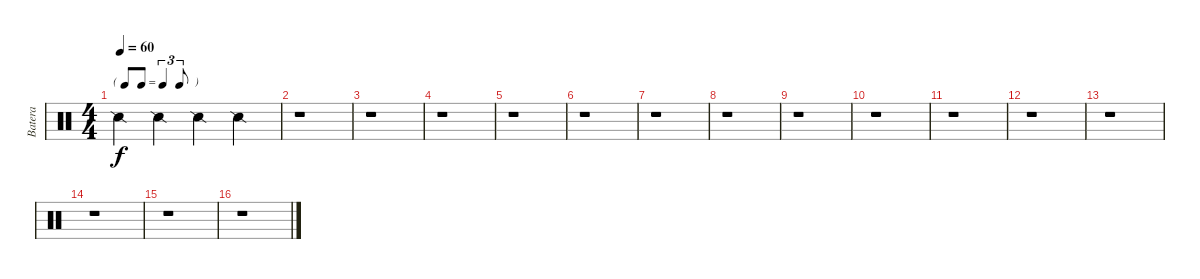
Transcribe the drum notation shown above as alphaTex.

\track ("Batera" "Batera") {instrument percussion}
\staff {score}
\articulation defaults
\ts (4 4)
\tf triplet8th
\tempo 60
\clef neutral
\ks c "Snare (side stick) 2".4{dy f} "Snare (side stick) 2".4 "Snare (side stick) 2".4 "Snare (side stick) 2".4
|
r.1 |
r.1 |
r.1 |
r.1 |
r.1 |
r.1 |
r.1 |
r.1 |
r.1 |
r.1 |
r.1 |
r.1 |
r.1 |
r.1 |
r.1
